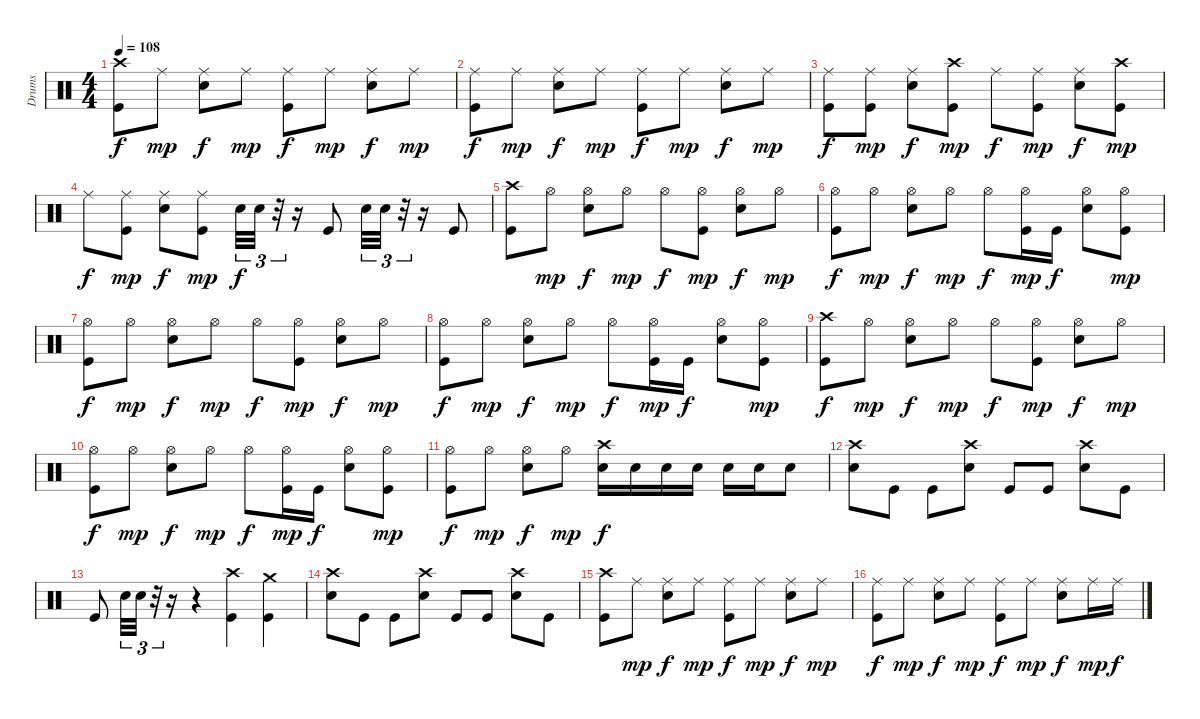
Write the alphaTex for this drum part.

\track ("Drums" "Drums") {instrument percussion}
\staff {score}
\articulation defaults
\ts (4 4)
\tempo 108
\clef neutral
\ks c
("Crash high (hit)" "Kick (hit)").8{dy f} "Ride (middle)".8{dy mp} ("Ride (middle)" "Snare (hit) 2").8{dy f} "Ride (middle)".8{dy mp} ("Ride (middle)" "Kick (hit)").8{dy f} "Ride (middle)".8{dy mp} ("Ride (middle)" "Snare (hit) 2").8{dy f} "Ride (middle)".8{dy mp} |
("Ride (middle)" "Kick (hit)").8{dy f} "Ride (middle)".8{dy mp} ("Ride (middle)" "Snare (hit) 2").8{dy f} "Ride (middle)".8{dy mp} ("Ride (middle)" "Kick (hit)").8{dy f} "Ride (middle)".8{dy mp} ("Ride (middle)" "Snare (hit) 2").8{dy f} "Ride (middle)".8{dy mp} |
("Ride (middle)" "Kick (hit)").8{dy f} ("Ride (middle)" "Kick (hit)").8{dy mp} ("Ride (middle)" "Snare (hit) 2").8{dy f} ("Crash high (hit)" "Kick (hit)").8{dy mp} "Ride (middle)".8{dy f} ("Ride (middle)" "Kick (hit)").8{dy mp} ("Ride (middle)" "Snare (hit) 2").8{dy f} ("Crash high (hit)" "Kick (hit)").8{dy mp} |
"Ride (middle)".8{dy f} ("Ride (middle)" "Kick (hit)").8{dy mp} ("Ride (middle)" "Snare (hit) 2").8{dy f} ("Ride (middle)" "Kick (hit)").8{dy mp} "Snare (hit) 2".32{tu (3 2) dy f} "Snare (hit) 2".32{tu (3 2)} r.32{tu (3 2)} r.16 "Kick (hit)".8 "Snare (hit) 2".32{tu (3 2)} "Snare (hit) 2".32{tu (3 2)} r.32{tu (3 2)} r.16 "Kick (hit)".8 |
("Crash high (hit)" "Kick (hit)").8 "Hi-Hat (open)".8{dy mp} ("Hi-Hat (open)" "Snare (hit) 2").8{dy f} "Hi-Hat (open)".8{dy mp} "Hi-Hat (open)".8{dy f} ("Hi-Hat (open)" "Kick (hit)").8{dy mp} ("Hi-Hat (open)" "Snare (hit) 2").8{dy f} "Hi-Hat (open)".8{dy mp} |
("Hi-Hat (open)" "Kick (hit)").8{dy f} "Hi-Hat (open)".8{dy mp} ("Hi-Hat (open)" "Snare (hit) 2").8{dy f} "Hi-Hat (open)".8{dy mp} "Hi-Hat (open)".8{dy f} ("Hi-Hat (open)" "Kick (hit)").16{dy mp} "Kick (hit)".16{dy f} ("Hi-Hat (open)" "Snare (hit) 2").8 ("Hi-Hat (open)" "Kick (hit)").8{dy mp} |
("Hi-Hat (open)" "Kick (hit)").8{dy f} "Hi-Hat (open)".8{dy mp} ("Hi-Hat (open)" "Snare (hit) 2").8{dy f} "Hi-Hat (open)".8{dy mp} "Hi-Hat (open)".8{dy f} ("Hi-Hat (open)" "Kick (hit)").8{dy mp} ("Hi-Hat (open)" "Snare (hit) 2").8{dy f} "Hi-Hat (open)".8{dy mp} |
("Hi-Hat (open)" "Kick (hit)").8{dy f} "Hi-Hat (open)".8{dy mp} ("Hi-Hat (open)" "Snare (hit) 2").8{dy f} "Hi-Hat (open)".8{dy mp} "Hi-Hat (open)".8{dy f} ("Hi-Hat (open)" "Kick (hit)").16{dy mp} "Kick (hit)".16{dy f} ("Hi-Hat (open)" "Snare (hit) 2").8 ("Hi-Hat (open)" "Kick (hit)").8{dy mp} |
("Crash high (hit)" "Kick (hit)").8{dy f} "Hi-Hat (open)".8{dy mp} ("Hi-Hat (open)" "Snare (hit) 2").8{dy f} "Hi-Hat (open)".8{dy mp} "Hi-Hat (open)".8{dy f} ("Hi-Hat (open)" "Kick (hit)").8{dy mp} ("Hi-Hat (open)" "Snare (hit) 2").8{dy f} "Hi-Hat (open)".8{dy mp} |
("Hi-Hat (open)" "Kick (hit)").8{dy f} "Hi-Hat (open)".8{dy mp} ("Hi-Hat (open)" "Snare (hit) 2").8{dy f} "Hi-Hat (open)".8{dy mp} "Hi-Hat (open)".8{dy f} ("Hi-Hat (open)" "Kick (hit)").16{dy mp} "Kick (hit)".16{dy f} ("Hi-Hat (open)" "Snare (hit) 2").8 ("Hi-Hat (open)" "Kick (hit)").8{dy mp} |
("Hi-Hat (open)" "Kick (hit)").8{dy f} "Hi-Hat (open)".8{dy mp} ("Hi-Hat (open)" "Snare (hit) 2").8{dy f} "Hi-Hat (open)".8{dy mp} ("Crash high (hit)" "Snare (hit) 2").16{dy f} "Snare (hit) 2".16 "Snare (hit) 2".16 "Snare (hit) 2".16 "Snare (hit) 2".16 "Snare (hit) 2".16 "Snare (hit) 2".8 |
("Crash high (hit)" "Snare (hit) 2").8 "Kick (hit)".8 "Kick (hit)".8 ("Crash high (hit)" "Snare (hit) 2").8 "Kick (hit)".8 "Kick (hit)".8 ("Crash high (hit)" "Snare (hit) 2").8 "Kick (hit)".8 |
"Kick (hit)".8 "Snare (hit) 2".32{tu (3 2)} "Snare (hit) 2".32{tu (3 2)} r.32{tu (3 2)} r.16 r.4 ("Crash high (hit)" "Kick (hit)").4 ("Crash medium (hit)" "Kick (hit)").4 |
("Crash high (hit)" "Snare (hit) 2").8 "Kick (hit)".8 "Kick (hit)".8 ("Crash high (hit)" "Snare (hit) 2").8 "Kick (hit)".8 "Kick (hit)".8 ("Crash high (hit)" "Snare (hit) 2").8 "Kick (hit)".8 |
("Crash high (hit)" "Kick (hit)").8 "Ride (middle)".8{dy mp} ("Ride (middle)" "Snare (hit) 2").8{dy f} "Ride (middle)".8{dy mp} ("Ride (middle)" "Kick (hit)").8{dy f} "Ride (middle)".8{dy mp} ("Ride (middle)" "Snare (hit) 2").8{dy f} "Ride (middle)".8{dy mp} |
("Ride (middle)" "Kick (hit)").8{dy f} "Ride (middle)".8{dy mp} ("Ride (middle)" "Snare (hit) 2").8{dy f} "Ride (middle)".8{dy mp} ("Ride (middle)" "Kick (hit)").8{dy f} "Ride (middle)".8{dy mp} ("Ride (middle)" "Snare (hit) 2").8{dy f} "Ride (middle)".16{dy mp} "Ride (middle)".16{dy f}
